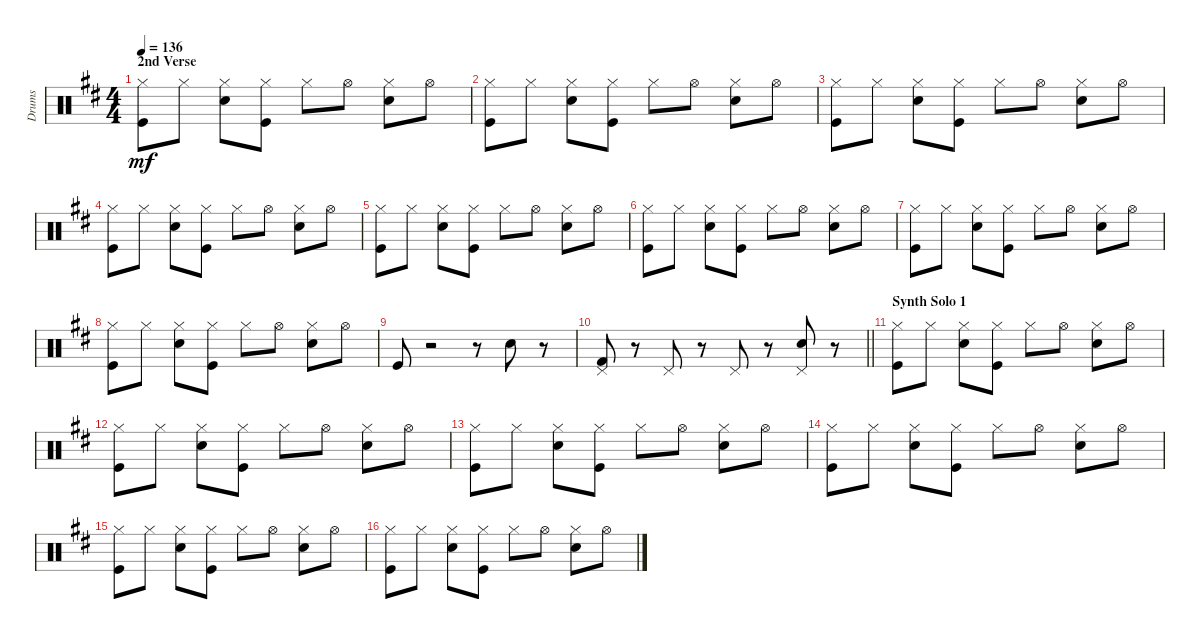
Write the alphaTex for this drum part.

\track ("Drums" "Drums") {instrument percussion}
\staff {score}
\articulation defaults
\ts (4 4)
\section ("" "2nd Verse")
\tempo 136
\clef neutral
\ks bminor
("Kick (hit)" "Hi-Hat (closed)").8{dy mf} "Hi-Hat (closed)".8 ("Snare (hit) 2" "Hi-Hat (closed)").8 ("Kick (hit)" "Hi-Hat (closed)").8 "Hi-Hat (closed)".8 "Hi-Hat (open)".8 ("Snare (hit) 2" "Hi-Hat (closed)").8 "Hi-Hat (open)".8 |
("Kick (hit)" "Hi-Hat (closed)").8 "Hi-Hat (closed)".8 ("Snare (hit) 2" "Hi-Hat (closed)").8 ("Kick (hit)" "Hi-Hat (closed)").8 "Hi-Hat (closed)".8 "Hi-Hat (open)".8 ("Snare (hit) 2" "Hi-Hat (closed)").8 "Hi-Hat (open)".8 |
("Kick (hit)" "Hi-Hat (closed)").8 "Hi-Hat (closed)".8 ("Snare (hit) 2" "Hi-Hat (closed)").8 ("Kick (hit)" "Hi-Hat (closed)").8 "Hi-Hat (closed)".8 "Hi-Hat (open)".8 ("Snare (hit) 2" "Hi-Hat (closed)").8 "Hi-Hat (open)".8 |
("Kick (hit)" "Hi-Hat (closed)").8 "Hi-Hat (closed)".8 ("Snare (hit) 2" "Hi-Hat (closed)").8 ("Kick (hit)" "Hi-Hat (closed)").8 "Hi-Hat (closed)".8 "Hi-Hat (open)".8 ("Snare (hit) 2" "Hi-Hat (closed)").8 "Hi-Hat (open)".8 |
("Kick (hit)" "Hi-Hat (closed)").8 "Hi-Hat (closed)".8 ("Snare (hit) 2" "Hi-Hat (closed)").8 ("Kick (hit)" "Hi-Hat (closed)").8 "Hi-Hat (closed)".8 "Hi-Hat (open)".8 ("Snare (hit) 2" "Hi-Hat (closed)").8 "Hi-Hat (open)".8 |
("Kick (hit)" "Hi-Hat (closed)").8 "Hi-Hat (closed)".8 ("Snare (hit) 2" "Hi-Hat (closed)").8 ("Kick (hit)" "Hi-Hat (closed)").8 "Hi-Hat (closed)".8 "Hi-Hat (open)".8 ("Snare (hit) 2" "Hi-Hat (closed)").8 "Hi-Hat (open)".8 |
("Kick (hit)" "Hi-Hat (closed)").8 "Hi-Hat (closed)".8 ("Snare (hit) 2" "Hi-Hat (closed)").8 ("Kick (hit)" "Hi-Hat (closed)").8 "Hi-Hat (closed)".8 "Hi-Hat (open)".8 ("Snare (hit) 2" "Hi-Hat (closed)").8 "Hi-Hat (open)".8 |
("Kick (hit)" "Hi-Hat (closed)").8 "Hi-Hat (closed)".8 ("Snare (hit) 2" "Hi-Hat (closed)").8 ("Kick (hit)" "Hi-Hat (closed)").8 "Hi-Hat (closed)".8 "Hi-Hat (open)".8 ("Snare (hit) 2" "Hi-Hat (closed)").8 "Hi-Hat (open)".8 |
"Kick (hit)".8 r.2 r.8 "Snare (hit) 2".8 r.8 |
\barLineRight lightlight
("Pedal Hi-Hat (hit)" "Kick (hit) 2").8 r.8 "Pedal Hi-Hat (hit)".8 r.8 "Pedal Hi-Hat (hit)".8 r.8 ("Pedal Hi-Hat (hit)" "Snare (hit) 2").8 r.8 |
\section ("" "Synth Solo 1")
("Kick (hit)" "Hi-Hat (closed)").8 "Hi-Hat (closed)".8 ("Snare (hit) 2" "Hi-Hat (closed)").8 ("Kick (hit)" "Hi-Hat (closed)").8 "Hi-Hat (closed)".8 "Hi-Hat (open)".8 ("Snare (hit) 2" "Hi-Hat (closed)").8 "Hi-Hat (open)".8 |
("Kick (hit)" "Hi-Hat (closed)").8 "Hi-Hat (closed)".8 ("Snare (hit) 2" "Hi-Hat (closed)").8 ("Kick (hit)" "Hi-Hat (closed)").8 "Hi-Hat (closed)".8 "Hi-Hat (open)".8 ("Snare (hit) 2" "Hi-Hat (closed)").8 "Hi-Hat (open)".8 |
("Kick (hit)" "Hi-Hat (closed)").8 "Hi-Hat (closed)".8 ("Snare (hit) 2" "Hi-Hat (closed)").8 ("Kick (hit)" "Hi-Hat (closed)").8 "Hi-Hat (closed)".8 "Hi-Hat (open)".8 ("Snare (hit) 2" "Hi-Hat (closed)").8 "Hi-Hat (open)".8 |
("Kick (hit)" "Hi-Hat (closed)").8 "Hi-Hat (closed)".8 ("Snare (hit) 2" "Hi-Hat (closed)").8 ("Kick (hit)" "Hi-Hat (closed)").8 "Hi-Hat (closed)".8 "Hi-Hat (open)".8 ("Snare (hit) 2" "Hi-Hat (closed)").8 "Hi-Hat (open)".8 |
("Kick (hit)" "Hi-Hat (closed)").8 "Hi-Hat (closed)".8 ("Snare (hit) 2" "Hi-Hat (closed)").8 ("Kick (hit)" "Hi-Hat (closed)").8 "Hi-Hat (closed)".8 "Hi-Hat (open)".8 ("Snare (hit) 2" "Hi-Hat (closed)").8 "Hi-Hat (open)".8 |
("Kick (hit)" "Hi-Hat (closed)").8 "Hi-Hat (closed)".8 ("Snare (hit) 2" "Hi-Hat (closed)").8 ("Kick (hit)" "Hi-Hat (closed)").8 "Hi-Hat (closed)".8 "Hi-Hat (open)".8 ("Snare (hit) 2" "Hi-Hat (closed)").8 "Hi-Hat (open)".8
